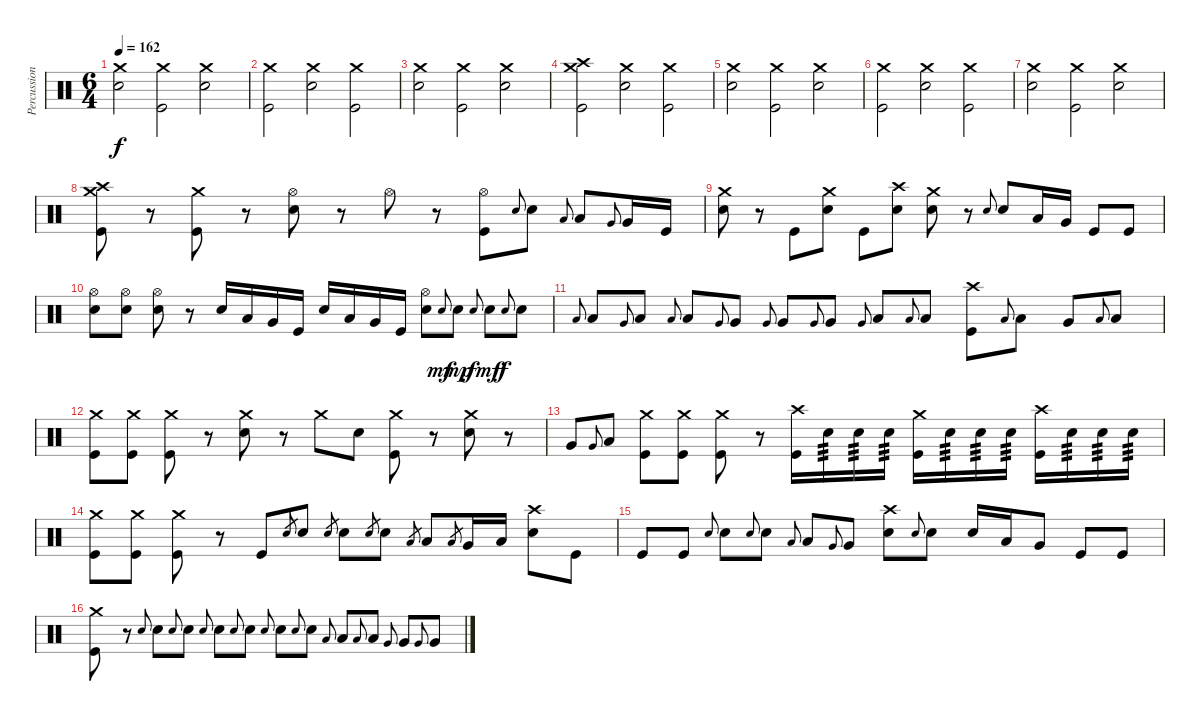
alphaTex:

\track ("Percussion" "Percussion") {instrument percussion}
\staff {score}
\articulation defaults
\ts (6 4)
\tempo 162
\clef neutral
\ks c
("Crash medium (hit)" "Snare (hit) 2").2{dy f} ("Crash medium (hit)" "Kick (hit)").2 ("Crash medium (hit)" "Snare (hit) 2").2 |
("Crash medium (hit)" "Kick (hit)").2 ("Crash medium (hit)" "Snare (hit) 2").2 ("Crash medium (hit)" "Kick (hit)").2 |
("Crash medium (hit)" "Snare (hit) 2").2 ("Crash medium (hit)" "Kick (hit)").2 ("Crash medium (hit)" "Snare (hit) 2").2 |
("Crash medium (hit)" "Crash high (hit)" "Kick (hit)").2 ("Crash medium (hit)" "Snare (hit) 2").2 ("Crash medium (hit)" "Kick (hit)").2 |
("Crash medium (hit)" "Snare (hit) 2").2 ("Crash medium (hit)" "Kick (hit)").2 ("Crash medium (hit)" "Snare (hit) 2").2 |
("Crash medium (hit)" "Kick (hit)").2 ("Crash medium (hit)" "Snare (hit) 2").2 ("Crash medium (hit)" "Kick (hit)").2 |
("Crash medium (hit)" "Snare (hit) 2").2 ("Crash medium (hit)" "Kick (hit)").2 ("Crash medium (hit)" "Snare (hit) 2").2 |
("Crash medium (hit)" "Crash high (hit)" "Kick (hit)").8 r.8 ("Crash medium (hit)" "Kick (hit)").8 r.8 ("Hi-Hat (open)" "Snare (hit) 2").8 r.8 "Hi-Hat (open)".8 r.8 ("Hi-Hat (open)" "Kick (hit)").8 "Snare (hit) 2".8{gr onbeat} "Snare (hit) 2".8 "Low Tom (hit)".8{gr onbeat} "Low Tom (hit)".8 "Very Low Tom (hit)".8{gr onbeat} "Very Low Tom (hit)".16 "Kick (hit)".16 |
("Crash medium (hit)" "Snare (hit) 2").8 r.8 "Kick (hit)".8 ("Crash medium (hit)" "Snare (hit) 2").8 "Kick (hit)".8 ("Crash high (hit)" "Snare (hit) 2").8 ("Crash medium (hit)" "Snare (hit) 2").8 r.8 "Snare (hit) 2".8{gr onbeat} "Snare (hit) 2".8 "Low Tom (hit)".16 "Very Low Tom (hit)".16 "Kick (hit)".8 "Kick (hit)".8 |
("Hi-Hat (open)" "Snare (hit) 2").8 ("Hi-Hat (open)" "Snare (hit) 2").8 ("Hi-Hat (open)" "Snare (hit) 2").8 r.8 "Snare (hit) 2".16 "Low Tom (hit)".16 "Very Low Tom (hit)".16 "Kick (hit)".16 "Snare (hit) 2".16 "Low Tom (hit)".16 "Very Low Tom (hit)".16 "Kick (hit)".16 ("Hi-Hat (open)" "Snare (hit) 2").8 "Snare (hit) 2".8{gr onbeat dy mf} "Snare (hit) 2".8{dy mp} "Snare (hit) 2".8{gr onbeat dy f} "Snare (hit) 2".8{dy mf} "Snare (hit) 2".8{gr onbeat dy f} "Snare (hit) 2".8 |
"Low Tom (hit)".8{gr onbeat} "Low Tom (hit)".8 "Very Low Tom (hit)".8{gr onbeat} "Low Tom (hit)".8 "Low Floor Tom (hit)".8{gr onbeat} "Low Tom (hit)".8 "Very Low Tom (hit)".8{gr onbeat} "Very Low Tom (hit)".8 "Very Low Tom (hit)".8{gr onbeat} "Very Low Tom (hit)".8 "Very Low Tom (hit)".8{gr onbeat} "Very Low Tom (hit)".8 "Very Low Tom (hit)".8{gr onbeat} "Low Floor Tom (hit)".8 "Low Floor Tom (hit)".8{gr onbeat} "Low Floor Tom (hit)".8 ("Crash high (hit)" "Kick (hit)").8 "Low Tom (hit)".8{gr onbeat} "Low Tom (hit)".8 "Very Low Tom (hit)".8 "Low Floor Tom (hit)".8{gr onbeat} "Low Floor Tom (hit)".8 |
("Crash medium (hit)" "Kick (hit)").8 ("Crash medium (hit)" "Kick (hit)").8 ("Crash medium (hit)" "Kick (hit)").8 r.8 ("Crash medium (hit)" "Snare (hit) 2").8 r.8 "Crash medium (hit)".8 "Snare (hit) 2".8 ("Crash medium (hit)" "Kick (hit)").8 r.8 ("Crash medium (hit)" "Snare (hit) 2").8 r.8 |
"Very Low Tom (hit)".8 "Very Low Tom (hit)".8{gr onbeat} "Low Floor Tom (hit)".8 ("Crash medium (hit)" "Kick (hit)").8 ("Crash medium (hit)" "Kick (hit)").8 ("Crash medium (hit)" "Kick (hit)").8 r.8 ("Crash high (hit)" "Kick (hit)").16 "Snare (hit) 2".16{tp 3} "Snare (hit) 2".16{tp 3} "Snare (hit) 2".16{tp 3} ("Crash medium (hit)" "Kick (hit)").16 "Snare (hit) 2".16{tp 3} "Snare (hit) 2".16{tp 3} "Snare (hit) 2".16{tp 3} ("Crash high (hit)" "Kick (hit)").16 "Snare (hit) 2".16{tp 3} "Snare (hit) 2".16{tp 3} "Snare (hit) 2".16{tp 3} |
("Crash medium (hit)" "Kick (hit)").8 ("Crash medium (hit)" "Kick (hit)").8 ("Crash medium (hit)" "Kick (hit)").8 r.8 "Kick (hit)".8 "Snare (hit) 2".8{gr} "Snare (hit) 2".8 "Snare (hit) 2".8{gr} "Snare (hit) 2".8 "Snare (hit) 2".8{gr} "Snare (hit) 2".8 "Low Tom (hit)".8{gr} "Low Tom (hit)".8 "Low Tom (hit)".8{gr} "Very Low Tom (hit)".16 "Low Floor Tom (hit)".16 ("Crash high (hit)" "Snare (hit) 2").8 "Kick (hit)".8 |
"Kick (hit)".8 "Kick (hit)".8 "Snare (hit) 2".8{gr onbeat} "Snare (hit) 2".8 "Snare (hit) 2".8{gr onbeat} "Snare (hit) 2".8 "Low Tom (hit)".8{gr onbeat} "Low Tom (hit)".8 "Very Low Tom (hit)".8{gr onbeat} "Very Low Tom (hit)".8 ("Crash high (hit)" "Snare (hit) 2").8 "Snare (hit) 2".8{gr onbeat} "Snare (hit) 2".8 "Snare (hit) 2".16 "Low Tom (hit)".16 "Very Low Tom (hit)".8 "Kick (hit)".8 "Kick (hit)".8 |
("Crash medium (hit)" "Kick (hit)").8 r.8 "Snare (hit) 2".8{gr onbeat} "Snare (hit) 2".8 "Snare (hit) 2".8{gr onbeat} "Snare (hit) 2".8 "Snare (hit) 2".8{gr onbeat} "Snare (hit) 2".8 "Snare (hit) 2".8{gr onbeat} "Snare (hit) 2".8 "Snare (hit) 2".8{gr onbeat} "Snare (hit) 2".8 "Snare (hit) 2".8{gr onbeat} "Snare (hit) 2".8 "Low Tom (hit)".8{gr onbeat} "Low Tom (hit)".8 "Low Tom (hit)".8{gr onbeat} "Low Tom (hit)".8 "Very Low Tom (hit)".8{gr onbeat} "Very Low Tom (hit)".8 "Very Low Tom (hit)".8{gr onbeat} "Very Low Tom (hit)".8
